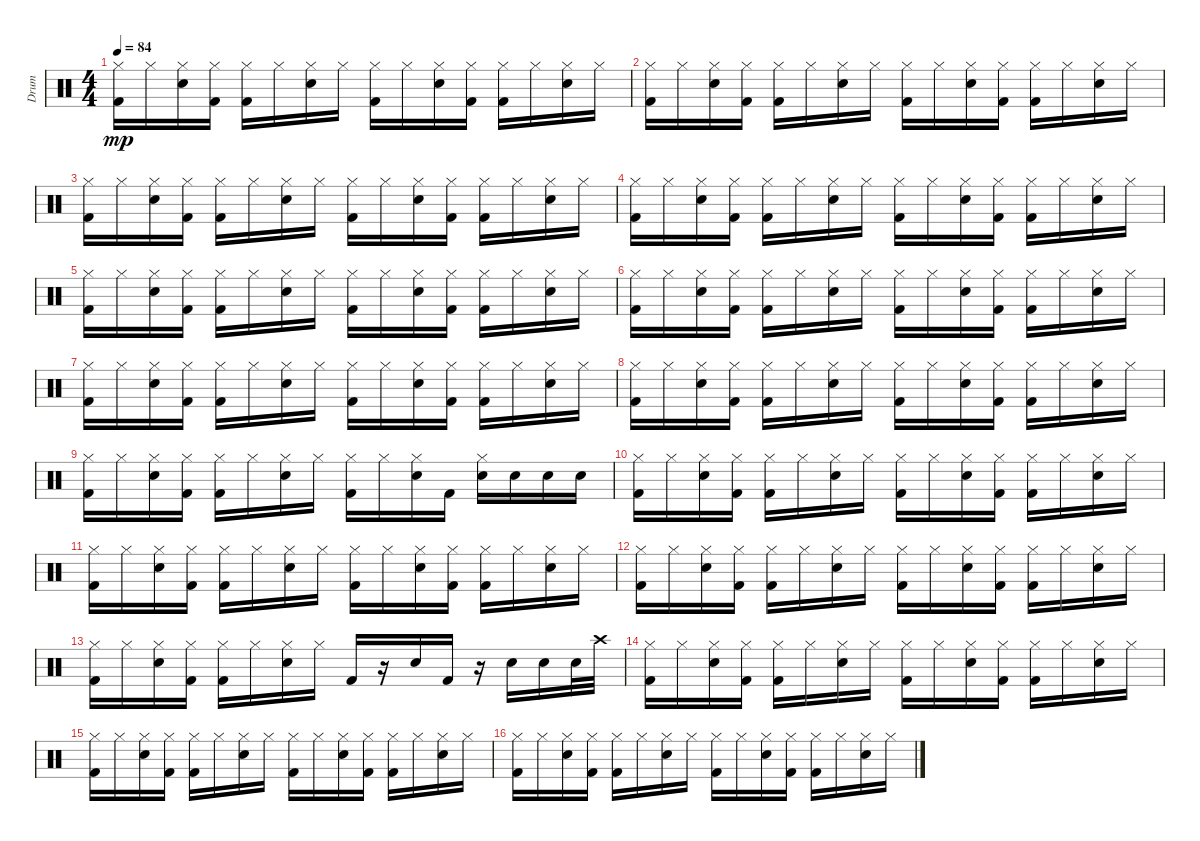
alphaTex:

\track ("Drum" "Drum") {instrument percussion}
\staff {score}
\articulation defaults
\ts (4 4)
\tempo 84
\clef neutral
\ks c
("Kick (hit) 2" "Hi-Hat (closed)").16{dy mp} "Hi-Hat (closed)".16 ("Snare (hit) 2" "Hi-Hat (closed)").16 ("Kick (hit) 2" "Hi-Hat (closed)").16 ("Kick (hit) 2" "Hi-Hat (closed)").16 "Hi-Hat (closed)".16 ("Snare (hit) 2" "Hi-Hat (closed)").16 "Hi-Hat (closed)".16 ("Kick (hit) 2" "Hi-Hat (closed)").16 "Hi-Hat (closed)".16 ("Snare (hit) 2" "Hi-Hat (closed)").16 ("Kick (hit) 2" "Hi-Hat (closed)").16 ("Kick (hit) 2" "Hi-Hat (closed)").16 "Hi-Hat (closed)".16 ("Snare (hit) 2" "Hi-Hat (closed)").16 "Hi-Hat (closed)".16 |
("Kick (hit) 2" "Hi-Hat (closed)").16 "Hi-Hat (closed)".16 ("Snare (hit) 2" "Hi-Hat (closed)").16 ("Kick (hit) 2" "Hi-Hat (closed)").16 ("Kick (hit) 2" "Hi-Hat (closed)").16 "Hi-Hat (closed)".16 ("Snare (hit) 2" "Hi-Hat (closed)").16 "Hi-Hat (closed)".16 ("Kick (hit) 2" "Hi-Hat (closed)").16 "Hi-Hat (closed)".16 ("Snare (hit) 2" "Hi-Hat (closed)").16 ("Kick (hit) 2" "Hi-Hat (closed)").16 ("Kick (hit) 2" "Hi-Hat (closed)").16 "Hi-Hat (closed)".16 ("Snare (hit) 2" "Hi-Hat (closed)").16 "Hi-Hat (closed)".16 |
("Kick (hit) 2" "Hi-Hat (closed)").16 "Hi-Hat (closed)".16 ("Snare (hit) 2" "Hi-Hat (closed)").16 ("Kick (hit) 2" "Hi-Hat (closed)").16 ("Kick (hit) 2" "Hi-Hat (closed)").16 "Hi-Hat (closed)".16 ("Snare (hit) 2" "Hi-Hat (closed)").16 "Hi-Hat (closed)".16 ("Kick (hit) 2" "Hi-Hat (closed)").16 "Hi-Hat (closed)".16 ("Snare (hit) 2" "Hi-Hat (closed)").16 ("Kick (hit) 2" "Hi-Hat (closed)").16 ("Kick (hit) 2" "Hi-Hat (closed)").16 "Hi-Hat (closed)".16 ("Snare (hit) 2" "Hi-Hat (closed)").16 "Hi-Hat (closed)".16 |
("Kick (hit) 2" "Hi-Hat (closed)").16 "Hi-Hat (closed)".16 ("Snare (hit) 2" "Hi-Hat (closed)").16 ("Kick (hit) 2" "Hi-Hat (closed)").16 ("Kick (hit) 2" "Hi-Hat (closed)").16 "Hi-Hat (closed)".16 ("Snare (hit) 2" "Hi-Hat (closed)").16 "Hi-Hat (closed)".16 ("Kick (hit) 2" "Hi-Hat (closed)").16 "Hi-Hat (closed)".16 ("Snare (hit) 2" "Hi-Hat (closed)").16 ("Kick (hit) 2" "Hi-Hat (closed)").16 ("Kick (hit) 2" "Hi-Hat (closed)").16 "Hi-Hat (closed)".16 ("Snare (hit) 2" "Hi-Hat (closed)").16 "Hi-Hat (closed)".16 |
("Kick (hit) 2" "Hi-Hat (closed)").16 "Hi-Hat (closed)".16 ("Snare (hit) 2" "Hi-Hat (closed)").16 ("Kick (hit) 2" "Hi-Hat (closed)").16 ("Kick (hit) 2" "Hi-Hat (closed)").16 "Hi-Hat (closed)".16 ("Snare (hit) 2" "Hi-Hat (closed)").16 "Hi-Hat (closed)".16 ("Kick (hit) 2" "Hi-Hat (closed)").16 "Hi-Hat (closed)".16 ("Snare (hit) 2" "Hi-Hat (closed)").16 ("Kick (hit) 2" "Hi-Hat (closed)").16 ("Kick (hit) 2" "Hi-Hat (closed)").16 "Hi-Hat (closed)".16 ("Snare (hit) 2" "Hi-Hat (closed)").16 "Hi-Hat (closed)".16 |
("Kick (hit) 2" "Hi-Hat (closed)").16 "Hi-Hat (closed)".16 ("Snare (hit) 2" "Hi-Hat (closed)").16 ("Kick (hit) 2" "Hi-Hat (closed)").16 ("Kick (hit) 2" "Hi-Hat (closed)").16 "Hi-Hat (closed)".16 ("Snare (hit) 2" "Hi-Hat (closed)").16 "Hi-Hat (closed)".16 ("Kick (hit) 2" "Hi-Hat (closed)").16 "Hi-Hat (closed)".16 ("Snare (hit) 2" "Hi-Hat (closed)").16 ("Kick (hit) 2" "Hi-Hat (closed)").16 ("Kick (hit) 2" "Hi-Hat (closed)").16 "Hi-Hat (closed)".16 ("Snare (hit) 2" "Hi-Hat (closed)").16 "Hi-Hat (closed)".16 |
("Kick (hit) 2" "Hi-Hat (closed)").16 "Hi-Hat (closed)".16 ("Snare (hit) 2" "Hi-Hat (closed)").16 ("Kick (hit) 2" "Hi-Hat (closed)").16 ("Kick (hit) 2" "Hi-Hat (closed)").16 "Hi-Hat (closed)".16 ("Snare (hit) 2" "Hi-Hat (closed)").16 "Hi-Hat (closed)".16 ("Kick (hit) 2" "Hi-Hat (closed)").16 "Hi-Hat (closed)".16 ("Snare (hit) 2" "Hi-Hat (closed)").16 ("Kick (hit) 2" "Hi-Hat (closed)").16 ("Kick (hit) 2" "Hi-Hat (closed)").16 "Hi-Hat (closed)".16 ("Snare (hit) 2" "Hi-Hat (closed)").16 "Hi-Hat (closed)".16 |
("Kick (hit) 2" "Hi-Hat (closed)").16 "Hi-Hat (closed)".16 ("Snare (hit) 2" "Hi-Hat (closed)").16 ("Kick (hit) 2" "Hi-Hat (closed)").16 ("Kick (hit) 2" "Hi-Hat (closed)").16 "Hi-Hat (closed)".16 ("Snare (hit) 2" "Hi-Hat (closed)").16 "Hi-Hat (closed)".16 ("Kick (hit) 2" "Hi-Hat (closed)").16 "Hi-Hat (closed)".16 ("Snare (hit) 2" "Hi-Hat (closed)").16 ("Kick (hit) 2" "Hi-Hat (closed)").16 ("Kick (hit) 2" "Hi-Hat (closed)").16 "Hi-Hat (closed)".16 ("Snare (hit) 2" "Hi-Hat (closed)").16 "Hi-Hat (closed)".16 |
("Kick (hit) 2" "Hi-Hat (closed)").16 "Hi-Hat (closed)".16 ("Snare (hit) 2" "Hi-Hat (closed)").16 ("Kick (hit) 2" "Hi-Hat (closed)").16 ("Kick (hit) 2" "Hi-Hat (closed)").16 "Hi-Hat (closed)".16 ("Snare (hit) 2" "Hi-Hat (closed)").16 "Hi-Hat (closed)".16 ("Kick (hit) 2" "Hi-Hat (closed)").16 "Hi-Hat (closed)".16 ("Snare (hit) 2" "Hi-Hat (closed)").16 "Kick (hit) 2".16 ("Electric Snare (hit)" "Hi-Hat (closed)").16 "Electric Snare (hit)".16 "Electric Snare (hit)".16 "Electric Snare (hit)".16 |
("Kick (hit) 2" "Hi-Hat (closed)").16 "Hi-Hat (closed)".16 ("Snare (hit) 2" "Hi-Hat (closed)").16 ("Kick (hit) 2" "Hi-Hat (closed)").16 ("Kick (hit) 2" "Hi-Hat (closed)").16 "Hi-Hat (closed)".16 ("Snare (hit) 2" "Hi-Hat (closed)").16 "Hi-Hat (closed)".16 ("Kick (hit) 2" "Hi-Hat (closed)").16 "Hi-Hat (closed)".16 ("Snare (hit) 2" "Hi-Hat (closed)").16 ("Kick (hit) 2" "Hi-Hat (closed)").16 ("Kick (hit) 2" "Hi-Hat (closed)").16 "Hi-Hat (closed)".16 ("Snare (hit) 2" "Hi-Hat (closed)").16 "Hi-Hat (closed)".16 |
("Kick (hit) 2" "Hi-Hat (closed)").16 "Hi-Hat (closed)".16 ("Snare (hit) 2" "Hi-Hat (closed)").16 ("Kick (hit) 2" "Hi-Hat (closed)").16 ("Kick (hit) 2" "Hi-Hat (closed)").16 "Hi-Hat (closed)".16 ("Snare (hit) 2" "Hi-Hat (closed)").16 "Hi-Hat (closed)".16 ("Kick (hit) 2" "Hi-Hat (closed)").16 "Hi-Hat (closed)".16 ("Snare (hit) 2" "Hi-Hat (closed)").16 ("Kick (hit) 2" "Hi-Hat (closed)").16 ("Kick (hit) 2" "Hi-Hat (closed)").16 "Hi-Hat (closed)".16 ("Snare (hit) 2" "Hi-Hat (closed)").16 "Hi-Hat (closed)".16 |
("Kick (hit) 2" "Hi-Hat (closed)").16 "Hi-Hat (closed)".16 ("Snare (hit) 2" "Hi-Hat (closed)").16 ("Kick (hit) 2" "Hi-Hat (closed)").16 ("Kick (hit) 2" "Hi-Hat (closed)").16 "Hi-Hat (closed)".16 ("Snare (hit) 2" "Hi-Hat (closed)").16 "Hi-Hat (closed)".16 ("Kick (hit) 2" "Hi-Hat (closed)").16 "Hi-Hat (closed)".16 ("Snare (hit) 2" "Hi-Hat (closed)").16 ("Kick (hit) 2" "Hi-Hat (closed)").16 ("Kick (hit) 2" "Hi-Hat (closed)").16 "Hi-Hat (closed)".16 ("Snare (hit) 2" "Hi-Hat (closed)").16 "Hi-Hat (closed)".16 |
("Kick (hit) 2" "Hi-Hat (closed)").16 "Hi-Hat (closed)".16 ("Snare (hit) 2" "Hi-Hat (closed)").16 ("Kick (hit) 2" "Hi-Hat (closed)").16 ("Kick (hit) 2" "Hi-Hat (closed)").16 "Hi-Hat (closed)".16 ("Snare (hit) 2" "Hi-Hat (closed)").16 "Hi-Hat (closed)".16 "Kick (hit) 2".16 r.16 "Snare (hit) 2".16 "Kick (hit) 2".16 r.16 "Snare (hit) 2".16 "Snare (hit) 2".16 "Snare (hit) 2".32 "Crash high (hit)".32 |
("Kick (hit) 2" "Hi-Hat (closed)").16 "Hi-Hat (closed)".16 ("Snare (hit) 2" "Hi-Hat (closed)").16 ("Kick (hit) 2" "Hi-Hat (closed)").16 ("Kick (hit) 2" "Hi-Hat (closed)").16 "Hi-Hat (closed)".16 ("Snare (hit) 2" "Hi-Hat (closed)").16 "Hi-Hat (closed)".16 ("Kick (hit) 2" "Hi-Hat (closed)").16 "Hi-Hat (closed)".16 ("Snare (hit) 2" "Hi-Hat (closed)").16 ("Kick (hit) 2" "Hi-Hat (closed)").16 ("Kick (hit) 2" "Hi-Hat (closed)").16 "Hi-Hat (closed)".16 ("Snare (hit) 2" "Hi-Hat (closed)").16 "Hi-Hat (closed)".16 |
("Kick (hit) 2" "Hi-Hat (closed)").16 "Hi-Hat (closed)".16 ("Snare (hit) 2" "Hi-Hat (closed)").16 ("Kick (hit) 2" "Hi-Hat (closed)").16 ("Kick (hit) 2" "Hi-Hat (closed)").16 "Hi-Hat (closed)".16 ("Snare (hit) 2" "Hi-Hat (closed)").16 "Hi-Hat (closed)".16 ("Kick (hit) 2" "Hi-Hat (closed)").16 "Hi-Hat (closed)".16 ("Snare (hit) 2" "Hi-Hat (closed)").16 ("Kick (hit) 2" "Hi-Hat (closed)").16 ("Kick (hit) 2" "Hi-Hat (closed)").16 "Hi-Hat (closed)".16 ("Snare (hit) 2" "Hi-Hat (closed)").16 "Hi-Hat (closed)".16 |
("Kick (hit) 2" "Hi-Hat (closed)").16 "Hi-Hat (closed)".16 ("Snare (hit) 2" "Hi-Hat (closed)").16 ("Kick (hit) 2" "Hi-Hat (closed)").16 ("Kick (hit) 2" "Hi-Hat (closed)").16 "Hi-Hat (closed)".16 ("Snare (hit) 2" "Hi-Hat (closed)").16 "Hi-Hat (closed)".16 ("Kick (hit) 2" "Hi-Hat (closed)").16 "Hi-Hat (closed)".16 ("Snare (hit) 2" "Hi-Hat (closed)").16 ("Kick (hit) 2" "Hi-Hat (closed)").16 ("Kick (hit) 2" "Hi-Hat (closed)").16 "Hi-Hat (closed)".16 ("Snare (hit) 2" "Hi-Hat (closed)").16 "Hi-Hat (closed)".16
